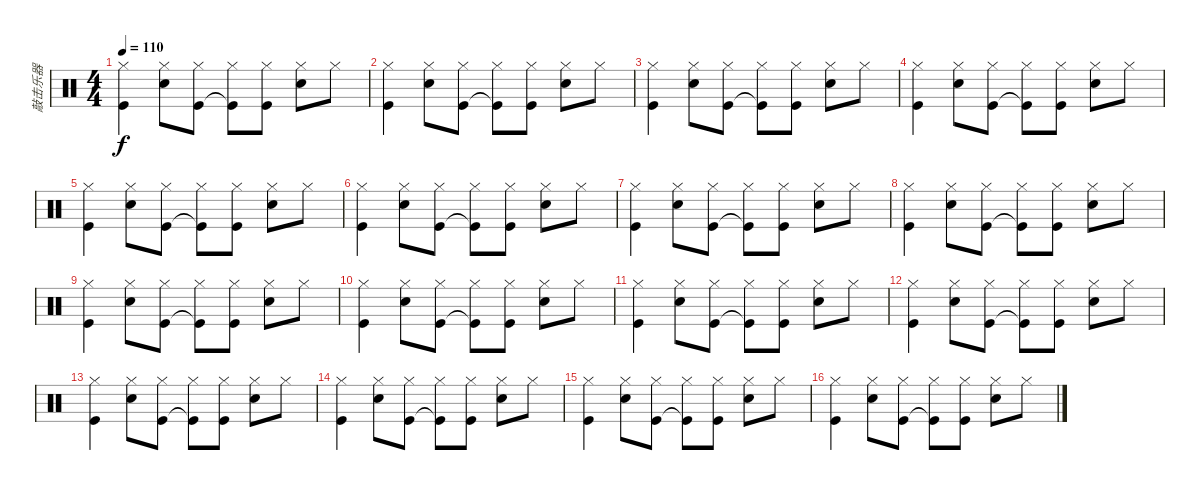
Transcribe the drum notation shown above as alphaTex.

\track ("敲击乐器" "敲击乐器") {instrument percussion}
\staff {score}
\articulation defaults
\ts (4 4)
\tempo 110
\clef neutral
\ks c
("Hi-Hat (closed)" "Kick (hit)").4{dy f} ("Hi-Hat (closed)" "Snare (hit) 2").8 ("Hi-Hat (closed)" "Kick (hit)").8 ("Hi-Hat (closed)" "Kick (hit)"{t}).8 ("Kick (hit)" "Hi-Hat (closed)").8 ("Snare (hit) 2" "Hi-Hat (closed)").8 "Hi-Hat (closed)".8 |
("Hi-Hat (closed)" "Kick (hit)").4 ("Hi-Hat (closed)" "Snare (hit) 2").8 ("Hi-Hat (closed)" "Kick (hit)").8 ("Hi-Hat (closed)" "Kick (hit)"{t}).8 ("Kick (hit)" "Hi-Hat (closed)").8 ("Snare (hit) 2" "Hi-Hat (closed)").8 "Hi-Hat (closed)".8 |
("Hi-Hat (closed)" "Kick (hit)").4 ("Hi-Hat (closed)" "Snare (hit) 2").8 ("Hi-Hat (closed)" "Kick (hit)").8 ("Hi-Hat (closed)" "Kick (hit)"{t}).8 ("Kick (hit)" "Hi-Hat (closed)").8 ("Snare (hit) 2" "Hi-Hat (closed)").8 "Hi-Hat (closed)".8 |
("Hi-Hat (closed)" "Kick (hit)").4 ("Hi-Hat (closed)" "Snare (hit) 2").8 ("Hi-Hat (closed)" "Kick (hit)").8 ("Hi-Hat (closed)" "Kick (hit)"{t}).8 ("Kick (hit)" "Hi-Hat (closed)").8 ("Snare (hit) 2" "Hi-Hat (closed)").8 "Hi-Hat (closed)".8 |
("Hi-Hat (closed)" "Kick (hit)").4 ("Hi-Hat (closed)" "Snare (hit) 2").8 ("Hi-Hat (closed)" "Kick (hit)").8 ("Hi-Hat (closed)" "Kick (hit)"{t}).8 ("Kick (hit)" "Hi-Hat (closed)").8 ("Snare (hit) 2" "Hi-Hat (closed)").8 "Hi-Hat (closed)".8 |
("Hi-Hat (closed)" "Kick (hit)").4 ("Hi-Hat (closed)" "Snare (hit) 2").8 ("Hi-Hat (closed)" "Kick (hit)").8 ("Hi-Hat (closed)" "Kick (hit)"{t}).8 ("Kick (hit)" "Hi-Hat (closed)").8 ("Snare (hit) 2" "Hi-Hat (closed)").8 "Hi-Hat (closed)".8 |
("Hi-Hat (closed)" "Kick (hit)").4 ("Hi-Hat (closed)" "Snare (hit) 2").8 ("Hi-Hat (closed)" "Kick (hit)").8 ("Hi-Hat (closed)" "Kick (hit)"{t}).8 ("Kick (hit)" "Hi-Hat (closed)").8 ("Snare (hit) 2" "Hi-Hat (closed)").8 "Hi-Hat (closed)".8 |
("Hi-Hat (closed)" "Kick (hit)").4 ("Hi-Hat (closed)" "Snare (hit) 2").8 ("Hi-Hat (closed)" "Kick (hit)").8 ("Hi-Hat (closed)" "Kick (hit)"{t}).8 ("Kick (hit)" "Hi-Hat (closed)").8 ("Snare (hit) 2" "Hi-Hat (closed)").8 "Hi-Hat (closed)".8 |
("Hi-Hat (closed)" "Kick (hit)").4 ("Hi-Hat (closed)" "Snare (hit) 2").8 ("Hi-Hat (closed)" "Kick (hit)").8 ("Hi-Hat (closed)" "Kick (hit)"{t}).8 ("Kick (hit)" "Hi-Hat (closed)").8 ("Snare (hit) 2" "Hi-Hat (closed)").8 "Hi-Hat (closed)".8 |
("Hi-Hat (closed)" "Kick (hit)").4 ("Hi-Hat (closed)" "Snare (hit) 2").8 ("Hi-Hat (closed)" "Kick (hit)").8 ("Hi-Hat (closed)" "Kick (hit)"{t}).8 ("Kick (hit)" "Hi-Hat (closed)").8 ("Snare (hit) 2" "Hi-Hat (closed)").8 "Hi-Hat (closed)".8 |
("Hi-Hat (closed)" "Kick (hit)").4 ("Hi-Hat (closed)" "Snare (hit) 2").8 ("Hi-Hat (closed)" "Kick (hit)").8 ("Hi-Hat (closed)" "Kick (hit)"{t}).8 ("Kick (hit)" "Hi-Hat (closed)").8 ("Snare (hit) 2" "Hi-Hat (closed)").8 "Hi-Hat (closed)".8 |
("Hi-Hat (closed)" "Kick (hit)").4 ("Hi-Hat (closed)" "Snare (hit) 2").8 ("Hi-Hat (closed)" "Kick (hit)").8 ("Hi-Hat (closed)" "Kick (hit)"{t}).8 ("Kick (hit)" "Hi-Hat (closed)").8 ("Snare (hit) 2" "Hi-Hat (closed)").8 "Hi-Hat (closed)".8 |
("Hi-Hat (closed)" "Kick (hit)").4 ("Hi-Hat (closed)" "Snare (hit) 2").8 ("Hi-Hat (closed)" "Kick (hit)").8 ("Hi-Hat (closed)" "Kick (hit)"{t}).8 ("Kick (hit)" "Hi-Hat (closed)").8 ("Snare (hit) 2" "Hi-Hat (closed)").8 "Hi-Hat (closed)".8 |
("Hi-Hat (closed)" "Kick (hit)").4 ("Hi-Hat (closed)" "Snare (hit) 2").8 ("Hi-Hat (closed)" "Kick (hit)").8 ("Hi-Hat (closed)" "Kick (hit)"{t}).8 ("Kick (hit)" "Hi-Hat (closed)").8 ("Snare (hit) 2" "Hi-Hat (closed)").8 "Hi-Hat (closed)".8 |
("Hi-Hat (closed)" "Kick (hit)").4 ("Hi-Hat (closed)" "Snare (hit) 2").8 ("Hi-Hat (closed)" "Kick (hit)").8 ("Hi-Hat (closed)" "Kick (hit)"{t}).8 ("Kick (hit)" "Hi-Hat (closed)").8 ("Snare (hit) 2" "Hi-Hat (closed)").8 "Hi-Hat (closed)".8 |
("Hi-Hat (closed)" "Kick (hit)").4 ("Hi-Hat (closed)" "Snare (hit) 2").8 ("Hi-Hat (closed)" "Kick (hit)").8 ("Hi-Hat (closed)" "Kick (hit)"{t}).8 ("Kick (hit)" "Hi-Hat (closed)").8 ("Snare (hit) 2" "Hi-Hat (closed)").8 "Hi-Hat (closed)".8
